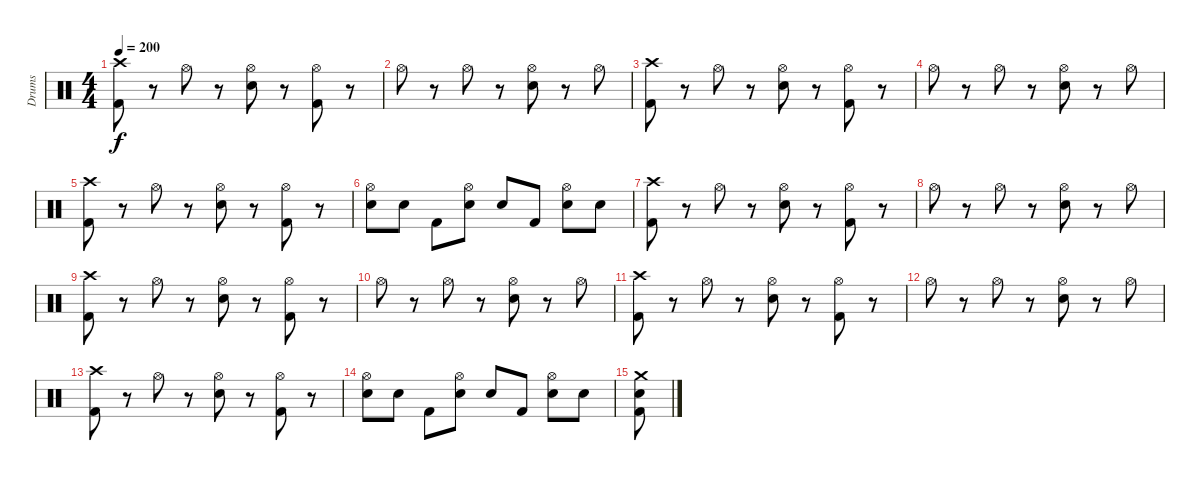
\track ("Drums" "Drums") {instrument percussion}
\staff {score}
\articulation defaults
\ts (4 4)
\tempo 200
\clef neutral
\ks c
("Crash high (hit)" "Kick (hit) 2").8{dy f} r.8 "Hi-Hat (open)".8 r.8 ("Hi-Hat (open)" "Electric Snare (hit)").8 r.8 ("Hi-Hat (open)" "Kick (hit) 2").8 r.8 |
"Hi-Hat (open)".8 r.8 "Hi-Hat (open)".8 r.8 ("Hi-Hat (open)" "Electric Snare (hit)").8 r.8 "Hi-Hat (open)".8 |
("Crash high (hit)" "Kick (hit) 2").8 r.8 "Hi-Hat (open)".8 r.8 ("Hi-Hat (open)" "Electric Snare (hit)").8 r.8 ("Hi-Hat (open)" "Kick (hit) 2").8 r.8 |
"Hi-Hat (open)".8 r.8 "Hi-Hat (open)".8 r.8 ("Hi-Hat (open)" "Electric Snare (hit)").8 r.8 "Hi-Hat (open)".8 |
("Crash high (hit)" "Kick (hit) 2").8 r.8 "Hi-Hat (open)".8 r.8 ("Hi-Hat (open)" "Electric Snare (hit)").8 r.8 ("Hi-Hat (open)" "Kick (hit) 2").8 r.8 |
("Hi-Hat (open)" "Electric Snare (hit)").8 "Electric Snare (hit)".8 "Kick (hit) 2".8 ("Hi-Hat (open)" "Electric Snare (hit)").8 "Electric Snare (hit)".8 "Kick (hit) 2".8 ("Hi-Hat (open)" "Electric Snare (hit)").8 "Electric Snare (hit)".8 |
("Crash high (hit)" "Kick (hit) 2").8 r.8 "Hi-Hat (open)".8 r.8 ("Hi-Hat (open)" "Electric Snare (hit)").8 r.8 ("Hi-Hat (open)" "Kick (hit) 2").8 r.8 |
"Hi-Hat (open)".8 r.8 "Hi-Hat (open)".8 r.8 ("Hi-Hat (open)" "Electric Snare (hit)").8 r.8 "Hi-Hat (open)".8 |
("Crash high (hit)" "Kick (hit) 2").8 r.8 "Hi-Hat (open)".8 r.8 ("Hi-Hat (open)" "Electric Snare (hit)").8 r.8 ("Hi-Hat (open)" "Kick (hit) 2").8 r.8 |
"Hi-Hat (open)".8 r.8 "Hi-Hat (open)".8 r.8 ("Hi-Hat (open)" "Electric Snare (hit)").8 r.8 "Hi-Hat (open)".8 |
("Crash high (hit)" "Kick (hit) 2").8 r.8 "Hi-Hat (open)".8 r.8 ("Hi-Hat (open)" "Electric Snare (hit)").8 r.8 ("Hi-Hat (open)" "Kick (hit) 2").8 r.8 |
"Hi-Hat (open)".8 r.8 "Hi-Hat (open)".8 r.8 ("Hi-Hat (open)" "Electric Snare (hit)").8 r.8 "Hi-Hat (open)".8 |
("Crash high (hit)" "Kick (hit) 2").8 r.8 "Hi-Hat (open)".8 r.8 ("Hi-Hat (open)" "Electric Snare (hit)").8 r.8 ("Hi-Hat (open)" "Kick (hit) 2").8 r.8 |
("Hi-Hat (open)" "Electric Snare (hit)").8 "Electric Snare (hit)".8 "Kick (hit) 2".8 ("Hi-Hat (open)" "Electric Snare (hit)").8 "Electric Snare (hit)".8 "Kick (hit) 2".8 ("Hi-Hat (open)" "Electric Snare (hit)").8 "Electric Snare (hit)".8 |
("Crash medium (hit)" "Kick (hit) 2" "Electric Snare (hit)").8
